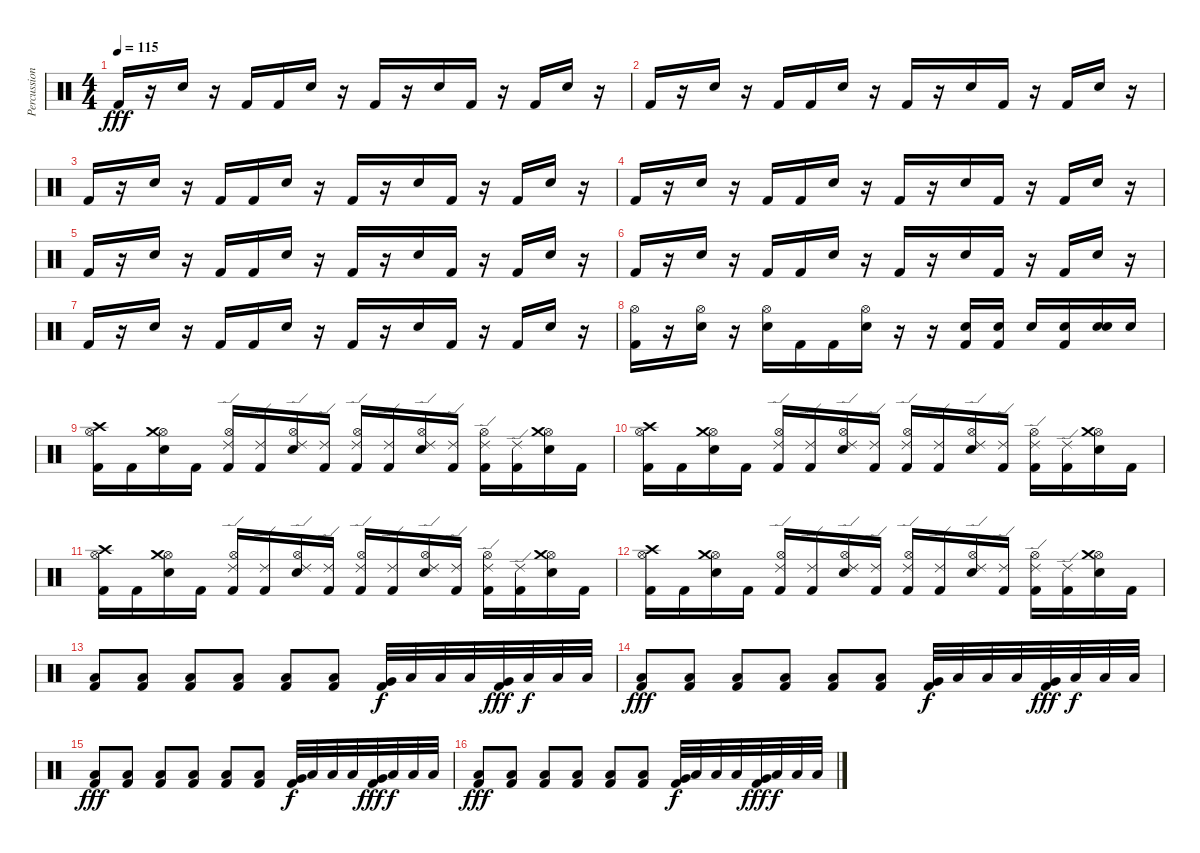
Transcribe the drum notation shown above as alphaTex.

\track ("Percussion" "Percussion") {instrument percussion}
\staff {score}
\articulation defaults
\ts (4 4)
\tempo 115
\clef neutral
\ks c "Kick (hit) 2".16{dy fff}
r.16 "Electric Snare (hit)".16 r.16 "Kick (hit) 2".16 "Kick (hit) 2".16 "Electric Snare (hit)".16 r.16 "Kick (hit) 2".16 r.16 "Electric Snare (hit)".16 "Kick (hit) 2".16 r.16 "Kick (hit) 2".16 "Electric Snare (hit)".16 r.16 |
"Kick (hit) 2".16 r.16 "Electric Snare (hit)".16 r.16 "Kick (hit) 2".16 "Kick (hit) 2".16 "Electric Snare (hit)".16 r.16 "Kick (hit) 2".16 r.16 "Electric Snare (hit)".16 "Kick (hit) 2".16 r.16 "Kick (hit) 2".16 "Electric Snare (hit)".16 r.16 |
"Kick (hit) 2".16 r.16 "Electric Snare (hit)".16 r.16 "Kick (hit) 2".16 "Kick (hit) 2".16 "Electric Snare (hit)".16 r.16 "Kick (hit) 2".16 r.16 "Electric Snare (hit)".16 "Kick (hit) 2".16 r.16 "Kick (hit) 2".16 "Electric Snare (hit)".16 r.16 |
"Kick (hit) 2".16 r.16 "Electric Snare (hit)".16 r.16 "Kick (hit) 2".16 "Kick (hit) 2".16 "Electric Snare (hit)".16 r.16 "Kick (hit) 2".16 r.16 "Electric Snare (hit)".16 "Kick (hit) 2".16 r.16 "Kick (hit) 2".16 "Electric Snare (hit)".16 r.16 |
"Kick (hit) 2".16 r.16 "Electric Snare (hit)".16 r.16 "Kick (hit) 2".16 "Kick (hit) 2".16 "Electric Snare (hit)".16 r.16 "Kick (hit) 2".16 r.16 "Electric Snare (hit)".16 "Kick (hit) 2".16 r.16 "Kick (hit) 2".16 "Electric Snare (hit)".16 r.16 |
"Kick (hit) 2".16 r.16 "Electric Snare (hit)".16 r.16 "Kick (hit) 2".16 "Kick (hit) 2".16 "Electric Snare (hit)".16 r.16 "Kick (hit) 2".16 r.16 "Electric Snare (hit)".16 "Kick (hit) 2".16 r.16 "Kick (hit) 2".16 "Electric Snare (hit)".16 r.16 |
"Kick (hit) 2".16 r.16 "Electric Snare (hit)".16 r.16 "Kick (hit) 2".16 "Kick (hit) 2".16 "Electric Snare (hit)".16 r.16 "Kick (hit) 2".16 r.16 "Electric Snare (hit)".16 "Kick (hit) 2".16 r.16 "Kick (hit) 2".16 "Electric Snare (hit)".16 r.16 |
("Kick (hit) 2" "Hi-Hat (open)").16 r.16 ("Electric Snare (hit)" "Hi-Hat (open)").16 r.16 ("Electric Snare (hit)" "Hi-Hat (open)").16 "Kick (hit) 2".16 "Kick (hit) 2".16 ("Electric Snare (hit)" "Hi-Hat (open)").16 r.16 r.16 ("Kick (hit) 2" "Electric Snare (hit)").16 ("Kick (hit) 2" "Electric Snare (hit)").16 "Electric Snare (hit)".16 ("Kick (hit) 2" "Electric Snare (hit)").16 ("Electric Snare (hit)" "Electric Snare (hit)").16 "Electric Snare (hit)".16 |
("Kick (hit) 2" "Hi-Hat (open)" "Crash high (hit)").16 "Kick (hit) 2".16 ("Electric Snare (hit)" "Hi-Hat (open)" "Crash medium (hit)").16 "Kick (hit) 2".16 ("Kick (hit) 2" "Hi-Hat (open)" "Ride (edge) 2").16 ("Kick (hit) 2" "Ride (edge) 2").16 ("Electric Snare (hit)" "Hi-Hat (open)" "Ride (edge) 2").16 ("Kick (hit) 2" "Ride (edge) 2").16 ("Kick (hit) 2" "Hi-Hat (open)" "Ride (edge) 2").16 ("Kick (hit) 2" "Ride (edge) 2").16 ("Electric Snare (hit)" "Hi-Hat (open)" "Ride (edge) 2").16 ("Kick (hit) 2" "Ride (edge) 2").16 ("Kick (hit) 2" "Hi-Hat (open)" "Ride (edge) 2").16 ("Kick (hit) 2" "Ride (edge) 2").16 ("Electric Snare (hit)" "Hi-Hat (open)" "Crash medium (hit)").16 "Kick (hit) 2".16 |
("Kick (hit) 2" "Hi-Hat (open)" "Crash high (hit)").16 "Kick (hit) 2".16 ("Electric Snare (hit)" "Hi-Hat (open)" "Crash medium (hit)").16 "Kick (hit) 2".16 ("Kick (hit) 2" "Hi-Hat (open)" "Ride (edge) 2").16 ("Kick (hit) 2" "Ride (edge) 2").16 ("Electric Snare (hit)" "Hi-Hat (open)" "Ride (edge) 2").16 ("Kick (hit) 2" "Ride (edge) 2").16 ("Kick (hit) 2" "Hi-Hat (open)" "Ride (edge) 2").16 ("Kick (hit) 2" "Ride (edge) 2").16 ("Electric Snare (hit)" "Hi-Hat (open)" "Ride (edge) 2").16 ("Kick (hit) 2" "Ride (edge) 2").16 ("Kick (hit) 2" "Hi-Hat (open)" "Ride (edge) 2").16 ("Kick (hit) 2" "Ride (edge) 2").16 ("Electric Snare (hit)" "Hi-Hat (open)" "Crash medium (hit)").16 "Kick (hit) 2".16 |
("Kick (hit) 2" "Hi-Hat (open)" "Crash high (hit)").16 "Kick (hit) 2".16 ("Electric Snare (hit)" "Hi-Hat (open)" "Crash medium (hit)").16 "Kick (hit) 2".16 ("Kick (hit) 2" "Hi-Hat (open)" "Ride (edge) 2").16 ("Kick (hit) 2" "Ride (edge) 2").16 ("Electric Snare (hit)" "Hi-Hat (open)" "Ride (edge) 2").16 ("Kick (hit) 2" "Ride (edge) 2").16 ("Kick (hit) 2" "Hi-Hat (open)" "Ride (edge) 2").16 ("Kick (hit) 2" "Ride (edge) 2").16 ("Electric Snare (hit)" "Hi-Hat (open)" "Ride (edge) 2").16 ("Kick (hit) 2" "Ride (edge) 2").16 ("Kick (hit) 2" "Hi-Hat (open)" "Ride (edge) 2").16 ("Kick (hit) 2" "Ride (edge) 2").16 ("Electric Snare (hit)" "Hi-Hat (open)" "Crash medium (hit)").16 "Kick (hit) 2".16 |
("Kick (hit) 2" "Hi-Hat (open)" "Crash high (hit)").16 "Kick (hit) 2".16 ("Electric Snare (hit)" "Hi-Hat (open)" "Crash medium (hit)").16 "Kick (hit) 2".16 ("Kick (hit) 2" "Hi-Hat (open)" "Ride (edge) 2").16 ("Kick (hit) 2" "Ride (edge) 2").16 ("Electric Snare (hit)" "Hi-Hat (open)" "Ride (edge) 2").16 ("Kick (hit) 2" "Ride (edge) 2").16 ("Kick (hit) 2" "Hi-Hat (open)" "Ride (edge) 2").16 ("Kick (hit) 2" "Ride (edge) 2").16 ("Electric Snare (hit)" "Hi-Hat (open)" "Ride (edge) 2").16 ("Kick (hit) 2" "Ride (edge) 2").16 ("Kick (hit) 2" "Hi-Hat (open)" "Ride (edge) 2").16 ("Kick (hit) 2" "Ride (edge) 2").16 ("Electric Snare (hit)" "Hi-Hat (open)" "Crash medium (hit)").16 "Kick (hit) 2".16 |
("Kick (hit) 2" "Low Floor Tom (hit)").8 ("Kick (hit) 2" "Low Floor Tom (hit)").8 ("Kick (hit) 2" "Low Floor Tom (hit)").8 ("Kick (hit) 2" "Low Floor Tom (hit)").8 ("Kick (hit) 2" "Low Floor Tom (hit)").8 ("Kick (hit) 2" "Low Floor Tom (hit)").8 ("Kick (hit) 2" "Very Low Tom (hit)").32{dy f} "Low Floor Tom (hit)".32 "Low Floor Tom (hit)".32 "Low Floor Tom (hit)".32 ("Kick (hit) 2" "Very Low Tom (hit)").32{dy fff} "Low Floor Tom (hit)".32{dy f} "Low Floor Tom (hit)".32 "Low Floor Tom (hit)".32 |
("Kick (hit) 2" "Low Floor Tom (hit)").8{dy fff} ("Kick (hit) 2" "Low Floor Tom (hit)").8 ("Kick (hit) 2" "Low Floor Tom (hit)").8 ("Kick (hit) 2" "Low Floor Tom (hit)").8 ("Kick (hit) 2" "Low Floor Tom (hit)").8 ("Kick (hit) 2" "Low Floor Tom (hit)").8 ("Kick (hit) 2" "Very Low Tom (hit)").32{dy f} "Low Floor Tom (hit)".32 "Low Floor Tom (hit)".32 "Low Floor Tom (hit)".32 ("Kick (hit) 2" "Very Low Tom (hit)").32{dy fff} "Low Floor Tom (hit)".32{dy f} "Low Floor Tom (hit)".32 "Low Floor Tom (hit)".32 |
("Kick (hit) 2" "Low Floor Tom (hit)").8{dy fff} ("Kick (hit) 2" "Low Floor Tom (hit)").8 ("Kick (hit) 2" "Low Floor Tom (hit)").8 ("Kick (hit) 2" "Low Floor Tom (hit)").8 ("Kick (hit) 2" "Low Floor Tom (hit)").8 ("Kick (hit) 2" "Low Floor Tom (hit)").8 ("Kick (hit) 2" "Very Low Tom (hit)").32{dy f} "Low Floor Tom (hit)".32 "Low Floor Tom (hit)".32 "Low Floor Tom (hit)".32 ("Kick (hit) 2" "Very Low Tom (hit)").32{dy fff} "Low Floor Tom (hit)".32{dy f} "Low Floor Tom (hit)".32 "Low Floor Tom (hit)".32 |
("Kick (hit) 2" "Low Floor Tom (hit)").8{dy fff} ("Kick (hit) 2" "Low Floor Tom (hit)").8 ("Kick (hit) 2" "Low Floor Tom (hit)").8 ("Kick (hit) 2" "Low Floor Tom (hit)").8 ("Kick (hit) 2" "Low Floor Tom (hit)").8 ("Kick (hit) 2" "Low Floor Tom (hit)").8 ("Kick (hit) 2" "Very Low Tom (hit)").32{dy f} "Low Floor Tom (hit)".32 "Low Floor Tom (hit)".32 "Low Floor Tom (hit)".32 ("Kick (hit) 2" "Very Low Tom (hit)").32{dy fff} "Low Floor Tom (hit)".32{dy f} "Low Floor Tom (hit)".32 "Low Floor Tom (hit)".32
